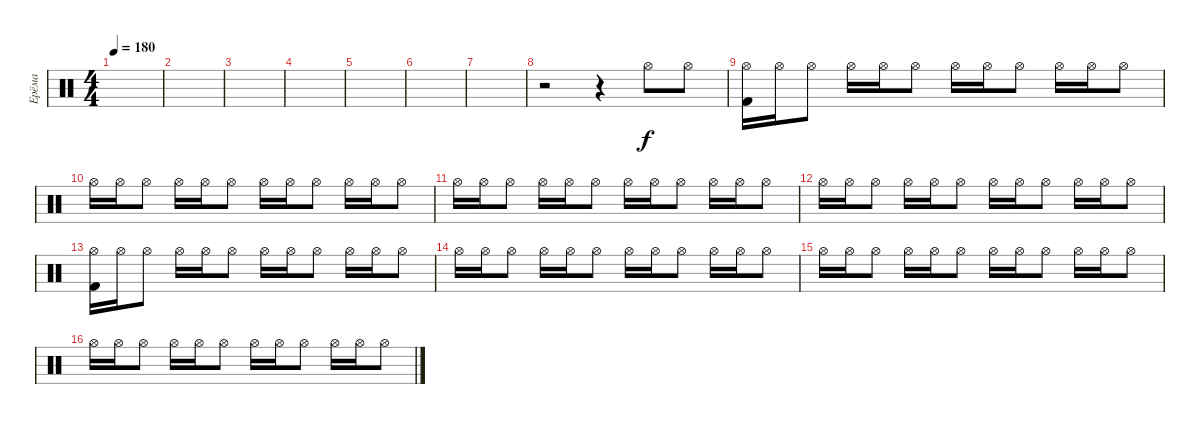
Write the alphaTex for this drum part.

\track ("Ерёма" "Ерёма") {instrument percussion}
\staff {score}
\articulation defaults
\ts (4 4)
\tempo 180
\clef neutral
\ks c
|
|
|
|
|
|
|
r.2 r.4 "Hi-Hat (open)".8 "Hi-Hat (open)".8 |
("Hi-Hat (open)" "Kick (hit) 2").16 "Hi-Hat (open)".16 "Hi-Hat (open)".8 "Hi-Hat (open)".16 "Hi-Hat (open)".16 "Hi-Hat (open)".8 "Hi-Hat (open)".16 "Hi-Hat (open)".16 "Hi-Hat (open)".8 "Hi-Hat (open)".16 "Hi-Hat (open)".16 "Hi-Hat (open)".8 |
"Hi-Hat (open)".16 "Hi-Hat (open)".16 "Hi-Hat (open)".8 "Hi-Hat (open)".16 "Hi-Hat (open)".16 "Hi-Hat (open)".8 "Hi-Hat (open)".16 "Hi-Hat (open)".16 "Hi-Hat (open)".8 "Hi-Hat (open)".16 "Hi-Hat (open)".16 "Hi-Hat (open)".8 |
"Hi-Hat (open)".16 "Hi-Hat (open)".16 "Hi-Hat (open)".8 "Hi-Hat (open)".16 "Hi-Hat (open)".16 "Hi-Hat (open)".8 "Hi-Hat (open)".16 "Hi-Hat (open)".16 "Hi-Hat (open)".8 "Hi-Hat (open)".16 "Hi-Hat (open)".16 "Hi-Hat (open)".8 |
"Hi-Hat (open)".16 "Hi-Hat (open)".16 "Hi-Hat (open)".8 "Hi-Hat (open)".16 "Hi-Hat (open)".16 "Hi-Hat (open)".8 "Hi-Hat (open)".16 "Hi-Hat (open)".16 "Hi-Hat (open)".8 "Hi-Hat (open)".16 "Hi-Hat (open)".16 "Hi-Hat (open)".8 |
("Hi-Hat (open)" "Kick (hit) 2").16 "Hi-Hat (open)".16 "Hi-Hat (open)".8 "Hi-Hat (open)".16 "Hi-Hat (open)".16 "Hi-Hat (open)".8 "Hi-Hat (open)".16 "Hi-Hat (open)".16 "Hi-Hat (open)".8 "Hi-Hat (open)".16 "Hi-Hat (open)".16 "Hi-Hat (open)".8 |
"Hi-Hat (open)".16 "Hi-Hat (open)".16 "Hi-Hat (open)".8 "Hi-Hat (open)".16 "Hi-Hat (open)".16 "Hi-Hat (open)".8 "Hi-Hat (open)".16 "Hi-Hat (open)".16 "Hi-Hat (open)".8 "Hi-Hat (open)".16 "Hi-Hat (open)".16 "Hi-Hat (open)".8 |
"Hi-Hat (open)".16 "Hi-Hat (open)".16 "Hi-Hat (open)".8 "Hi-Hat (open)".16 "Hi-Hat (open)".16 "Hi-Hat (open)".8 "Hi-Hat (open)".16 "Hi-Hat (open)".16 "Hi-Hat (open)".8 "Hi-Hat (open)".16 "Hi-Hat (open)".16 "Hi-Hat (open)".8 |
"Hi-Hat (open)".16 "Hi-Hat (open)".16 "Hi-Hat (open)".8 "Hi-Hat (open)".16 "Hi-Hat (open)".16 "Hi-Hat (open)".8 "Hi-Hat (open)".16 "Hi-Hat (open)".16 "Hi-Hat (open)".8 "Hi-Hat (open)".16 "Hi-Hat (open)".16 "Hi-Hat (open)".8
